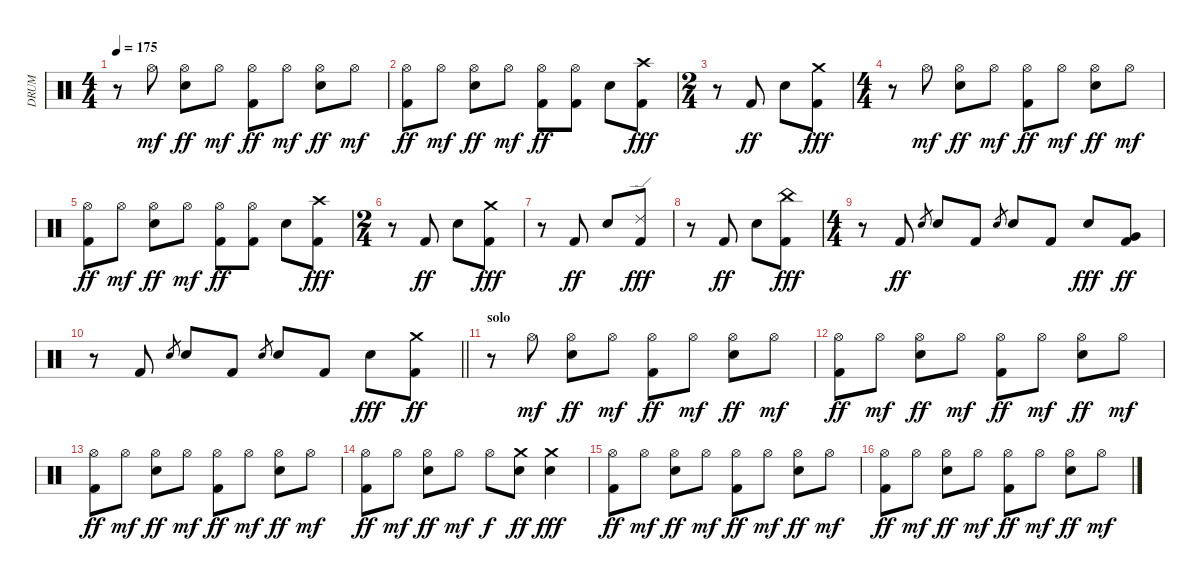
\track ("DRUM" "DRUM") {instrument percussion}
\staff {score}
\articulation defaults
\ts (4 4)
\tempo 175
\clef neutral
\ks c
r.8{dy fff} "Hi-Hat (open)".8{dy mf} ("Hi-Hat (open)" "Snare (hit) 2").8{dy ff} "Hi-Hat (open)".8{dy mf} ("Hi-Hat (open)" "Kick (hit) 2").8{dy ff} "Hi-Hat (open)".8{dy mf} ("Hi-Hat (open)" "Snare (hit) 2").8{dy ff} "Hi-Hat (open)".8{dy mf} |
("Hi-Hat (open)" "Kick (hit) 2").8{dy ff} "Hi-Hat (open)".8{dy mf} ("Hi-Hat (open)" "Snare (hit) 2").8{dy ff} "Hi-Hat (open)".8{dy mf} ("Hi-Hat (open)" "Kick (hit) 2").8{dy ff} ("Hi-Hat (open)" "Kick (hit) 2").8 "Snare (hit) 2".8 ("Crash high (hit)" "Kick (hit) 2").8{dy fff} |
\ts (2 4)
r.8 "Kick (hit) 2".8{dy ff} "Snare (hit) 2".8 ("Crash medium (hit)" "Kick (hit) 2").8{dy fff} |
\ts (4 4)
r.8 "Hi-Hat (open)".8{dy mf} ("Hi-Hat (open)" "Snare (hit) 2").8{dy ff} "Hi-Hat (open)".8{dy mf} ("Hi-Hat (open)" "Kick (hit) 2").8{dy ff} "Hi-Hat (open)".8{dy mf} ("Hi-Hat (open)" "Snare (hit) 2").8{dy ff} "Hi-Hat (open)".8{dy mf} |
("Hi-Hat (open)" "Kick (hit) 2").8{dy ff} "Hi-Hat (open)".8{dy mf} ("Hi-Hat (open)" "Snare (hit) 2").8{dy ff} "Hi-Hat (open)".8{dy mf} ("Hi-Hat (open)" "Kick (hit) 2").8{dy ff} ("Hi-Hat (open)" "Kick (hit) 2").8 "Snare (hit) 2".8 ("Crash high (hit)" "Kick (hit) 2").8{dy fff} |
\ts (2 4)
r.8 "Kick (hit) 2".8{dy ff} "Snare (hit) 2".8 ("Crash medium (hit)" "Kick (hit) 2").8{dy fff} |
r.8 "Kick (hit) 2".8{dy ff} "Snare (hit) 2".8 ("Ride (edge) 2" "Kick (hit) 2").8{dy fff} |
r.8 "Kick (hit) 2".8{dy ff} "Snare (hit) 2".8 ("China (hit)" "Kick (hit) 2").8{dy fff} |
\ts (4 4)
r.8 "Kick (hit) 2".8{dy ff} "Electric Snare (hit)".8{gr} "Snare (hit) 2".8 "Kick (hit) 2".8 "Electric Snare (hit)".8{gr} "Snare (hit) 2".8 "Kick (hit) 2".8 "Snare (hit) 2".8{dy fff} ("Very Low Tom (hit)" "Kick (hit) 2").8{dy ff} |
\barLineRight lightlight
r.8 "Kick (hit) 2".8 "Electric Snare (hit)".8{gr} "Snare (hit) 2".8 "Kick (hit) 2".8 "Electric Snare (hit)".8{gr} "Snare (hit) 2".8 "Kick (hit) 2".8 "Snare (hit) 2".8{dy fff} ("Crash medium (hit)" "Kick (hit) 2").8{dy ff} |
\section ("" "solo")
r.8 "Hi-Hat (open)".8{dy mf} ("Hi-Hat (open)" "Snare (hit) 2").8{dy ff} "Hi-Hat (open)".8{dy mf} ("Hi-Hat (open)" "Kick (hit) 2").8{dy ff} "Hi-Hat (open)".8{dy mf} ("Hi-Hat (open)" "Snare (hit) 2").8{dy ff} "Hi-Hat (open)".8{dy mf} |
("Hi-Hat (open)" "Kick (hit) 2").8{dy ff} "Hi-Hat (open)".8{dy mf} ("Hi-Hat (open)" "Snare (hit) 2").8{dy ff} "Hi-Hat (open)".8{dy mf} ("Hi-Hat (open)" "Kick (hit) 2").8{dy ff} "Hi-Hat (open)".8{dy mf} ("Hi-Hat (open)" "Snare (hit) 2").8{dy ff} "Hi-Hat (open)".8{dy mf} |
("Hi-Hat (open)" "Kick (hit) 2").8{dy ff} "Hi-Hat (open)".8{dy mf} ("Hi-Hat (open)" "Snare (hit) 2").8{dy ff} "Hi-Hat (open)".8{dy mf} ("Hi-Hat (open)" "Kick (hit) 2").8{dy ff} "Hi-Hat (open)".8{dy mf} ("Hi-Hat (open)" "Snare (hit) 2").8{dy ff} "Hi-Hat (open)".8{dy mf} |
("Hi-Hat (open)" "Kick (hit) 2").8{dy ff} "Hi-Hat (open)".8{dy mf} ("Hi-Hat (open)" "Snare (hit) 2").8{dy ff} "Hi-Hat (open)".8{dy mf} "Hi-Hat (open)".8{dy f} ("Crash medium (hit)" "Snare (hit) 2").8{dy ff} ("Crash medium (hit)" "Snare (hit) 2").4{dy fff} |
("Hi-Hat (open)" "Kick (hit) 2").8{dy ff} "Hi-Hat (open)".8{dy mf} ("Hi-Hat (open)" "Snare (hit) 2").8{dy ff} "Hi-Hat (open)".8{dy mf} ("Hi-Hat (open)" "Kick (hit) 2").8{dy ff} "Hi-Hat (open)".8{dy mf} ("Hi-Hat (open)" "Snare (hit) 2").8{dy ff} "Hi-Hat (open)".8{dy mf} |
("Hi-Hat (open)" "Kick (hit) 2").8{dy ff} "Hi-Hat (open)".8{dy mf} ("Hi-Hat (open)" "Snare (hit) 2").8{dy ff} "Hi-Hat (open)".8{dy mf} ("Hi-Hat (open)" "Kick (hit) 2").8{dy ff} "Hi-Hat (open)".8{dy mf} ("Hi-Hat (open)" "Snare (hit) 2").8{dy ff} "Hi-Hat (open)".8{dy mf}
